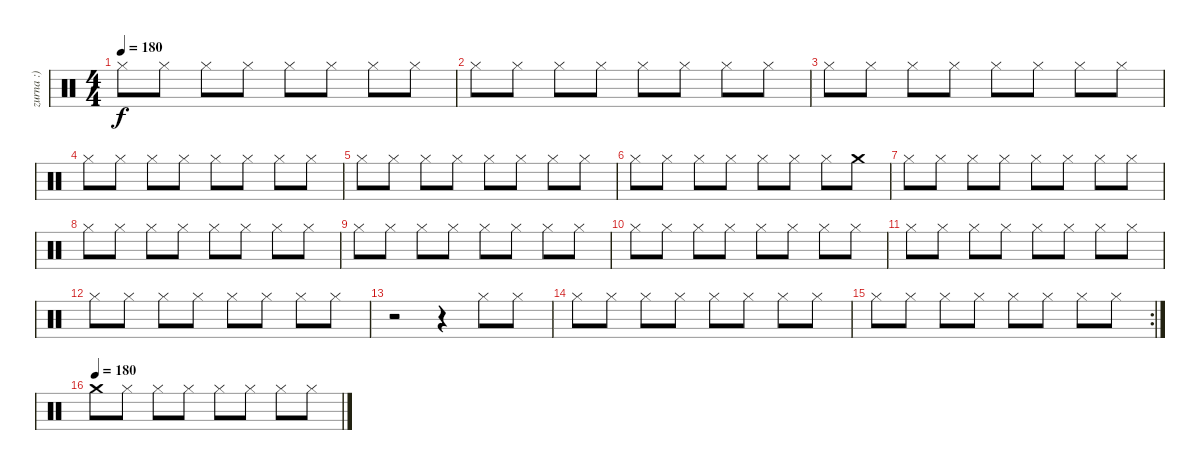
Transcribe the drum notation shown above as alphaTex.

\track ("zurna :)" "zurna :)") {instrument percussion}
\staff {score}
\articulation defaults
\ts (4 4)
\tempo 180
\clef neutral
\ks c "Hi-Hat (closed)".8{dy f} "Hi-Hat (closed)".8 "Hi-Hat (closed)".8 "Hi-Hat (closed)".8 "Hi-Hat (closed)".8 "Hi-Hat (closed)".8 "Hi-Hat (closed)".8 "Hi-Hat (closed)".8
|
"Hi-Hat (closed)".8 "Hi-Hat (closed)".8 "Hi-Hat (closed)".8 "Hi-Hat (closed)".8 "Hi-Hat (closed)".8 "Hi-Hat (closed)".8 "Hi-Hat (closed)".8 "Hi-Hat (closed)".8 |
"Hi-Hat (closed)".8 "Hi-Hat (closed)".8 "Hi-Hat (closed)".8 "Hi-Hat (closed)".8 "Hi-Hat (closed)".8 "Hi-Hat (closed)".8 "Hi-Hat (closed)".8 "Hi-Hat (closed)".8 |
"Hi-Hat (closed)".8 "Hi-Hat (closed)".8 "Hi-Hat (closed)".8 "Hi-Hat (closed)".8 "Hi-Hat (closed)".8 "Hi-Hat (closed)".8 "Hi-Hat (closed)".8 "Hi-Hat (closed)".8 |
"Hi-Hat (closed)".8 "Hi-Hat (closed)".8 "Hi-Hat (closed)".8 "Hi-Hat (closed)".8 "Hi-Hat (closed)".8 "Hi-Hat (closed)".8 "Hi-Hat (closed)".8 "Hi-Hat (closed)".8 |
"Hi-Hat (closed)".8 "Hi-Hat (closed)".8 "Hi-Hat (closed)".8 "Hi-Hat (closed)".8 "Hi-Hat (closed)".8 "Hi-Hat (closed)".8 "Hi-Hat (closed)".8 "Crash medium (hit)".8 |
"Hi-Hat (closed)".8 "Hi-Hat (closed)".8 "Hi-Hat (closed)".8 "Hi-Hat (closed)".8 "Hi-Hat (closed)".8 "Hi-Hat (closed)".8 "Hi-Hat (closed)".8 "Hi-Hat (closed)".8 |
"Hi-Hat (closed)".8 "Hi-Hat (closed)".8 "Hi-Hat (closed)".8 "Hi-Hat (closed)".8 "Hi-Hat (closed)".8 "Hi-Hat (closed)".8 "Hi-Hat (closed)".8 "Hi-Hat (closed)".8 |
"Hi-Hat (closed)".8 "Hi-Hat (closed)".8 "Hi-Hat (closed)".8 "Hi-Hat (closed)".8 "Hi-Hat (closed)".8 "Hi-Hat (closed)".8 "Hi-Hat (closed)".8 "Hi-Hat (closed)".8 |
"Hi-Hat (closed)".8 "Hi-Hat (closed)".8 "Hi-Hat (closed)".8 "Hi-Hat (closed)".8 "Hi-Hat (closed)".8 "Hi-Hat (closed)".8 "Hi-Hat (closed)".8 "Hi-Hat (closed)".8 |
"Hi-Hat (closed)".8 "Hi-Hat (closed)".8 "Hi-Hat (closed)".8 "Hi-Hat (closed)".8 "Hi-Hat (closed)".8 "Hi-Hat (closed)".8 "Hi-Hat (closed)".8 "Hi-Hat (closed)".8 |
"Hi-Hat (closed)".8 "Hi-Hat (closed)".8 "Hi-Hat (closed)".8 "Hi-Hat (closed)".8 "Hi-Hat (closed)".8 "Hi-Hat (closed)".8 "Hi-Hat (closed)".8 "Hi-Hat (closed)".8 |
r.2 r.4 "Hi-Hat (closed)".8 "Hi-Hat (closed)".8 |
"Hi-Hat (closed)".8 "Hi-Hat (closed)".8 "Hi-Hat (closed)".8 "Hi-Hat (closed)".8 "Hi-Hat (closed)".8 "Hi-Hat (closed)".8 "Hi-Hat (closed)".8 "Hi-Hat (closed)".8 |
\rc 2 "Hi-Hat (closed)".8 "Hi-Hat (closed)".8 "Hi-Hat (closed)".8 "Hi-Hat (closed)".8 "Hi-Hat (closed)".8 "Hi-Hat (closed)".8 "Hi-Hat (closed)".8 "Hi-Hat (closed)".8
|
\tempo (180)
"Crash medium (hit)".8 "Hi-Hat (closed)".8 "Hi-Hat (closed)".8 "Hi-Hat (closed)".8 "Hi-Hat (closed)".8 "Hi-Hat (closed)".8 "Hi-Hat (closed)".8 "Hi-Hat (closed)".8
